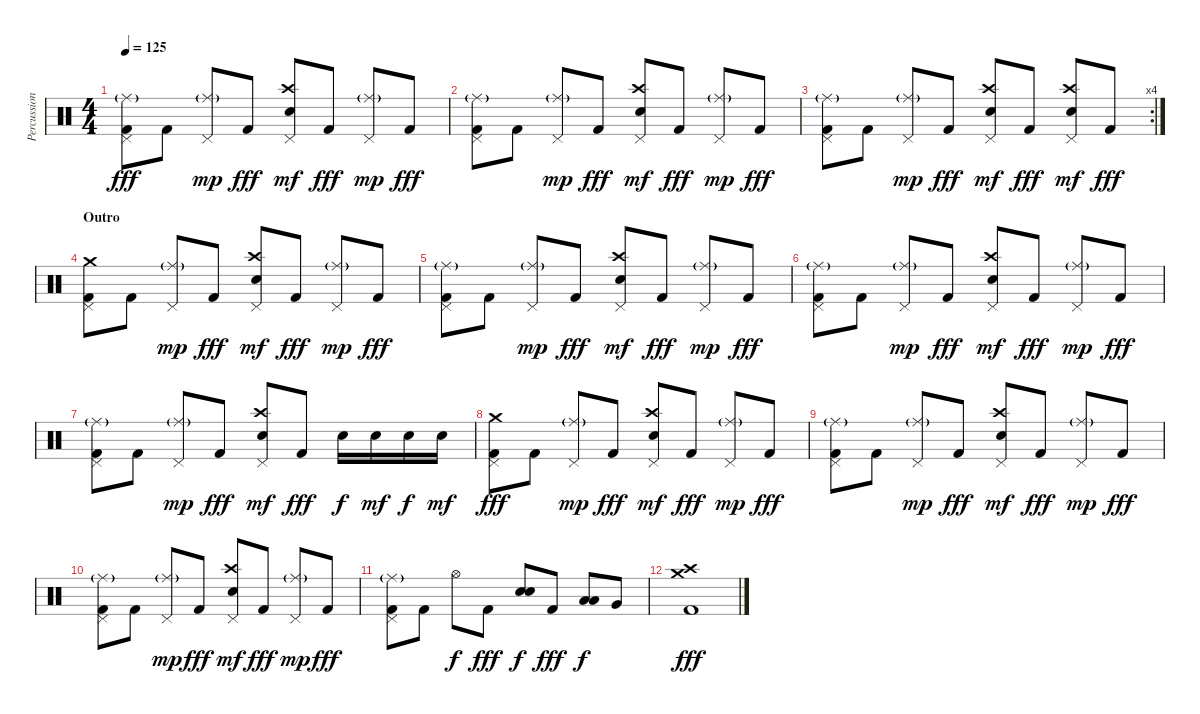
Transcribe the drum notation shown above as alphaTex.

\track ("Percussion" "Percussion") {instrument percussion}
\staff {score}
\articulation defaults
\ts (4 4)
\tempo 125
\clef neutral
\ks c
("Ride (middle)"{g} "Pedal Hi-Hat (hit)" "Kick (hit) 2").8{dy fff} "Kick (hit) 2".8 ("Ride (middle)"{g} "Pedal Hi-Hat (hit)").8{dy mp} "Kick (hit) 2".8{dy fff} ("Crash high (hit)" "Pedal Hi-Hat (hit)" "Electric Snare (hit)").8{dy mf} "Kick (hit) 2".8{dy fff} ("Ride (middle)"{g} "Pedal Hi-Hat (hit)").8{dy mp} "Kick (hit) 2".8{dy fff} |
("Ride (middle)"{g} "Pedal Hi-Hat (hit)" "Kick (hit) 2").8 "Kick (hit) 2".8 ("Ride (middle)"{g} "Pedal Hi-Hat (hit)").8{dy mp} "Kick (hit) 2".8{dy fff} ("Crash high (hit)" "Pedal Hi-Hat (hit)" "Electric Snare (hit)").8{dy mf} "Kick (hit) 2".8{dy fff} ("Ride (middle)"{g} "Pedal Hi-Hat (hit)").8{dy mp} "Kick (hit) 2".8{dy fff} |
\rc 4
("Ride (middle)"{g} "Pedal Hi-Hat (hit)" "Kick (hit) 2").8 "Kick (hit) 2".8 ("Ride (middle)"{g} "Pedal Hi-Hat (hit)").8{dy mp} "Kick (hit) 2".8{dy fff} ("Crash high (hit)" "Pedal Hi-Hat (hit)" "Electric Snare (hit)").8{dy mf} "Kick (hit) 2".8{dy fff} ("Crash high (hit)" "Pedal Hi-Hat (hit)" "Electric Snare (hit)").8{dy mf} "Kick (hit) 2".8{dy fff} |
\section ("" "Outro")
("Crash medium (hit)" "Pedal Hi-Hat (hit)" "Kick (hit) 2").8 "Kick (hit) 2".8 ("Ride (middle)"{g} "Pedal Hi-Hat (hit)").8{dy mp} "Kick (hit) 2".8{dy fff} ("Crash high (hit)" "Pedal Hi-Hat (hit)" "Electric Snare (hit)").8{dy mf} "Kick (hit) 2".8{dy fff} ("Ride (middle)"{g} "Pedal Hi-Hat (hit)").8{dy mp} "Kick (hit) 2".8{dy fff} |
("Ride (middle)"{g} "Pedal Hi-Hat (hit)" "Kick (hit) 2").8 "Kick (hit) 2".8 ("Ride (middle)"{g} "Pedal Hi-Hat (hit)").8{dy mp} "Kick (hit) 2".8{dy fff} ("Crash high (hit)" "Pedal Hi-Hat (hit)" "Electric Snare (hit)").8{dy mf} "Kick (hit) 2".8{dy fff} ("Ride (middle)"{g} "Pedal Hi-Hat (hit)").8{dy mp} "Kick (hit) 2".8{dy fff} |
("Ride (middle)"{g} "Pedal Hi-Hat (hit)" "Kick (hit) 2").8 "Kick (hit) 2".8 ("Ride (middle)"{g} "Pedal Hi-Hat (hit)").8{dy mp} "Kick (hit) 2".8{dy fff} ("Crash high (hit)" "Pedal Hi-Hat (hit)" "Electric Snare (hit)").8{dy mf} "Kick (hit) 2".8{dy fff} ("Ride (middle)"{g} "Pedal Hi-Hat (hit)").8{dy mp} "Kick (hit) 2".8{dy fff} |
("Ride (middle)"{g} "Pedal Hi-Hat (hit)" "Kick (hit) 2").8 "Kick (hit) 2".8 ("Ride (middle)"{g} "Pedal Hi-Hat (hit)").8{dy mp} "Kick (hit) 2".8{dy fff} ("Crash high (hit)" "Pedal Hi-Hat (hit)" "Electric Snare (hit)").8{dy mf} "Kick (hit) 2".8{dy fff} "Electric Snare (hit)".16{dy f} "Electric Snare (hit)".16{dy mf} "Electric Snare (hit)".16{dy f} "Electric Snare (hit)".16{dy mf} |
("Crash medium (hit)" "Pedal Hi-Hat (hit)" "Kick (hit) 2").8{dy fff} "Kick (hit) 2".8 ("Ride (middle)"{g} "Pedal Hi-Hat (hit)").8{dy mp} "Kick (hit) 2".8{dy fff} ("Crash high (hit)" "Pedal Hi-Hat (hit)" "Electric Snare (hit)").8{dy mf} "Kick (hit) 2".8{dy fff} ("Ride (middle)"{g} "Pedal Hi-Hat (hit)").8{dy mp} "Kick (hit) 2".8{dy fff} |
("Ride (middle)"{g} "Pedal Hi-Hat (hit)" "Kick (hit) 2").8 "Kick (hit) 2".8 ("Ride (middle)"{g} "Pedal Hi-Hat (hit)").8{dy mp} "Kick (hit) 2".8{dy fff} ("Crash high (hit)" "Pedal Hi-Hat (hit)" "Electric Snare (hit)").8{dy mf} "Kick (hit) 2".8{dy fff} ("Ride (middle)"{g} "Pedal Hi-Hat (hit)").8{dy mp} "Kick (hit) 2".8{dy fff} |
("Ride (middle)"{g} "Pedal Hi-Hat (hit)" "Kick (hit) 2").8 "Kick (hit) 2".8 ("Ride (middle)"{g} "Pedal Hi-Hat (hit)").8{dy mp} "Kick (hit) 2".8{dy fff} ("Crash high (hit)" "Pedal Hi-Hat (hit)" "Electric Snare (hit)").8{dy mf} "Kick (hit) 2".8{dy fff} ("Ride (middle)"{g} "Pedal Hi-Hat (hit)").8{dy mp} "Kick (hit) 2".8{dy fff} |
("Ride (middle)"{g} "Pedal Hi-Hat (hit)" "Kick (hit) 2").8 "Kick (hit) 2".8 "Hi-Hat (open)".8{dy f} "Kick (hit) 2".8{dy fff} ("Electric Snare (hit)" "Electric Snare (hit)").8{bu 30 dy f} "Kick (hit) 2".8{dy fff} ("Low Tom (hit)" "Low Tom (hit)").8{bu 30 dy f} "Very Low Tom (hit)".8 |
("Crash medium (hit)" "Crash high (hit)" "Kick (hit) 2").1{dy fff}
